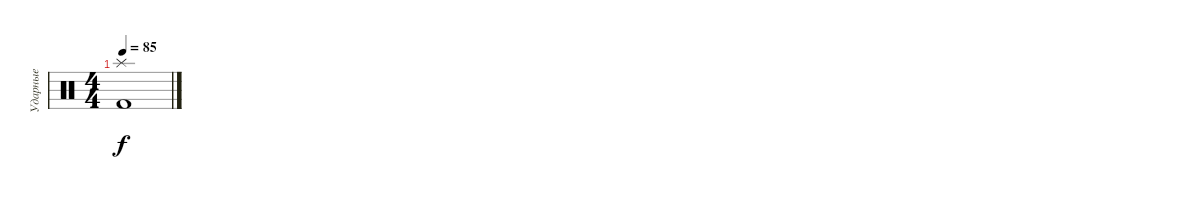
\track ("Ударные" "Ударные") {instrument percussion}
\staff {score}
\articulation defaults
\ts (4 4)
\tempo 85
\clef neutral
\ks c
("Splash (hit)" "Kick (hit) 2").1{dy f}
